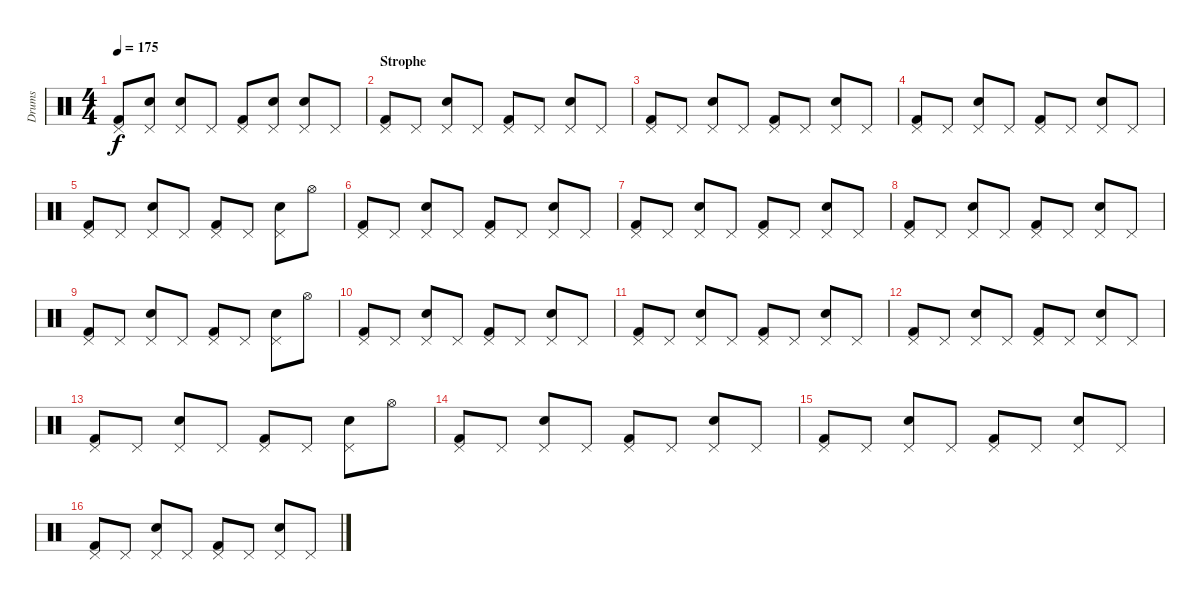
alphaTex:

\track ("Drums" "Drums") {instrument percussion}
\staff {score}
\articulation defaults
\ts (4 4)
\tempo 175
\clef neutral
\ks c
("Pedal Hi-Hat (hit)" "Kick (hit) 2").8{dy f} ("Pedal Hi-Hat (hit)" "Snare (hit) 2").8 ("Pedal Hi-Hat (hit)" "Snare (hit) 2").8 "Pedal Hi-Hat (hit)".8 ("Pedal Hi-Hat (hit)" "Kick (hit) 2").8 ("Pedal Hi-Hat (hit)" "Snare (hit) 2").8 ("Pedal Hi-Hat (hit)" "Snare (hit) 2").8 "Pedal Hi-Hat (hit)".8 |
\section ("" "Strophe")
("Pedal Hi-Hat (hit)" "Kick (hit) 2").8 "Pedal Hi-Hat (hit)".8 ("Pedal Hi-Hat (hit)" "Snare (hit) 2").8 "Pedal Hi-Hat (hit)".8 ("Pedal Hi-Hat (hit)" "Kick (hit) 2").8 "Pedal Hi-Hat (hit)".8 ("Pedal Hi-Hat (hit)" "Snare (hit) 2").8 "Pedal Hi-Hat (hit)".8 |
("Pedal Hi-Hat (hit)" "Kick (hit) 2").8 "Pedal Hi-Hat (hit)".8 ("Pedal Hi-Hat (hit)" "Snare (hit) 2").8 "Pedal Hi-Hat (hit)".8 ("Pedal Hi-Hat (hit)" "Kick (hit) 2").8 "Pedal Hi-Hat (hit)".8 ("Pedal Hi-Hat (hit)" "Snare (hit) 2").8 "Pedal Hi-Hat (hit)".8 |
("Pedal Hi-Hat (hit)" "Kick (hit) 2").8 "Pedal Hi-Hat (hit)".8 ("Pedal Hi-Hat (hit)" "Snare (hit) 2").8 "Pedal Hi-Hat (hit)".8 ("Pedal Hi-Hat (hit)" "Kick (hit) 2").8 "Pedal Hi-Hat (hit)".8 ("Pedal Hi-Hat (hit)" "Snare (hit) 2").8 "Pedal Hi-Hat (hit)".8 |
("Pedal Hi-Hat (hit)" "Kick (hit) 2").8 "Pedal Hi-Hat (hit)".8 ("Pedal Hi-Hat (hit)" "Snare (hit) 2").8 "Pedal Hi-Hat (hit)".8 ("Pedal Hi-Hat (hit)" "Kick (hit) 2").8 "Pedal Hi-Hat (hit)".8 ("Pedal Hi-Hat (hit)" "Snare (hit) 2").8 "Hi-Hat (open)".8 |
("Pedal Hi-Hat (hit)" "Kick (hit) 2").8 "Pedal Hi-Hat (hit)".8 ("Pedal Hi-Hat (hit)" "Snare (hit) 2").8 "Pedal Hi-Hat (hit)".8 ("Pedal Hi-Hat (hit)" "Kick (hit) 2").8 "Pedal Hi-Hat (hit)".8 ("Pedal Hi-Hat (hit)" "Snare (hit) 2").8 "Pedal Hi-Hat (hit)".8 |
("Pedal Hi-Hat (hit)" "Kick (hit) 2").8 "Pedal Hi-Hat (hit)".8 ("Pedal Hi-Hat (hit)" "Snare (hit) 2").8 "Pedal Hi-Hat (hit)".8 ("Pedal Hi-Hat (hit)" "Kick (hit) 2").8 "Pedal Hi-Hat (hit)".8 ("Pedal Hi-Hat (hit)" "Snare (hit) 2").8 "Pedal Hi-Hat (hit)".8 |
("Pedal Hi-Hat (hit)" "Kick (hit) 2").8 "Pedal Hi-Hat (hit)".8 ("Pedal Hi-Hat (hit)" "Snare (hit) 2").8 "Pedal Hi-Hat (hit)".8 ("Pedal Hi-Hat (hit)" "Kick (hit) 2").8 "Pedal Hi-Hat (hit)".8 ("Pedal Hi-Hat (hit)" "Snare (hit) 2").8 "Pedal Hi-Hat (hit)".8 |
("Pedal Hi-Hat (hit)" "Kick (hit) 2").8 "Pedal Hi-Hat (hit)".8 ("Pedal Hi-Hat (hit)" "Snare (hit) 2").8 "Pedal Hi-Hat (hit)".8 ("Pedal Hi-Hat (hit)" "Kick (hit) 2").8 "Pedal Hi-Hat (hit)".8 ("Pedal Hi-Hat (hit)" "Snare (hit) 2").8 "Hi-Hat (open)".8 |
("Pedal Hi-Hat (hit)" "Kick (hit) 2").8 "Pedal Hi-Hat (hit)".8 ("Pedal Hi-Hat (hit)" "Snare (hit) 2").8 "Pedal Hi-Hat (hit)".8 ("Pedal Hi-Hat (hit)" "Kick (hit) 2").8 "Pedal Hi-Hat (hit)".8 ("Pedal Hi-Hat (hit)" "Snare (hit) 2").8 "Pedal Hi-Hat (hit)".8 |
("Pedal Hi-Hat (hit)" "Kick (hit) 2").8 "Pedal Hi-Hat (hit)".8 ("Pedal Hi-Hat (hit)" "Snare (hit) 2").8 "Pedal Hi-Hat (hit)".8 ("Pedal Hi-Hat (hit)" "Kick (hit) 2").8 "Pedal Hi-Hat (hit)".8 ("Pedal Hi-Hat (hit)" "Snare (hit) 2").8 "Pedal Hi-Hat (hit)".8 |
("Pedal Hi-Hat (hit)" "Kick (hit) 2").8 "Pedal Hi-Hat (hit)".8 ("Pedal Hi-Hat (hit)" "Snare (hit) 2").8 "Pedal Hi-Hat (hit)".8 ("Pedal Hi-Hat (hit)" "Kick (hit) 2").8 "Pedal Hi-Hat (hit)".8 ("Pedal Hi-Hat (hit)" "Snare (hit) 2").8 "Pedal Hi-Hat (hit)".8 |
("Pedal Hi-Hat (hit)" "Kick (hit) 2").8 "Pedal Hi-Hat (hit)".8 ("Pedal Hi-Hat (hit)" "Snare (hit) 2").8 "Pedal Hi-Hat (hit)".8 ("Pedal Hi-Hat (hit)" "Kick (hit) 2").8 "Pedal Hi-Hat (hit)".8 ("Pedal Hi-Hat (hit)" "Snare (hit) 2").8 "Hi-Hat (open)".8 |
("Pedal Hi-Hat (hit)" "Kick (hit) 2").8 "Pedal Hi-Hat (hit)".8 ("Pedal Hi-Hat (hit)" "Snare (hit) 2").8 "Pedal Hi-Hat (hit)".8 ("Pedal Hi-Hat (hit)" "Kick (hit) 2").8 "Pedal Hi-Hat (hit)".8 ("Pedal Hi-Hat (hit)" "Snare (hit) 2").8 "Pedal Hi-Hat (hit)".8 |
("Pedal Hi-Hat (hit)" "Kick (hit) 2").8 "Pedal Hi-Hat (hit)".8 ("Pedal Hi-Hat (hit)" "Snare (hit) 2").8 "Pedal Hi-Hat (hit)".8 ("Pedal Hi-Hat (hit)" "Kick (hit) 2").8 "Pedal Hi-Hat (hit)".8 ("Pedal Hi-Hat (hit)" "Snare (hit) 2").8 "Pedal Hi-Hat (hit)".8 |
("Pedal Hi-Hat (hit)" "Kick (hit) 2").8 "Pedal Hi-Hat (hit)".8 ("Pedal Hi-Hat (hit)" "Snare (hit) 2").8 "Pedal Hi-Hat (hit)".8 ("Pedal Hi-Hat (hit)" "Kick (hit) 2").8 "Pedal Hi-Hat (hit)".8 ("Pedal Hi-Hat (hit)" "Snare (hit) 2").8 "Pedal Hi-Hat (hit)".8
